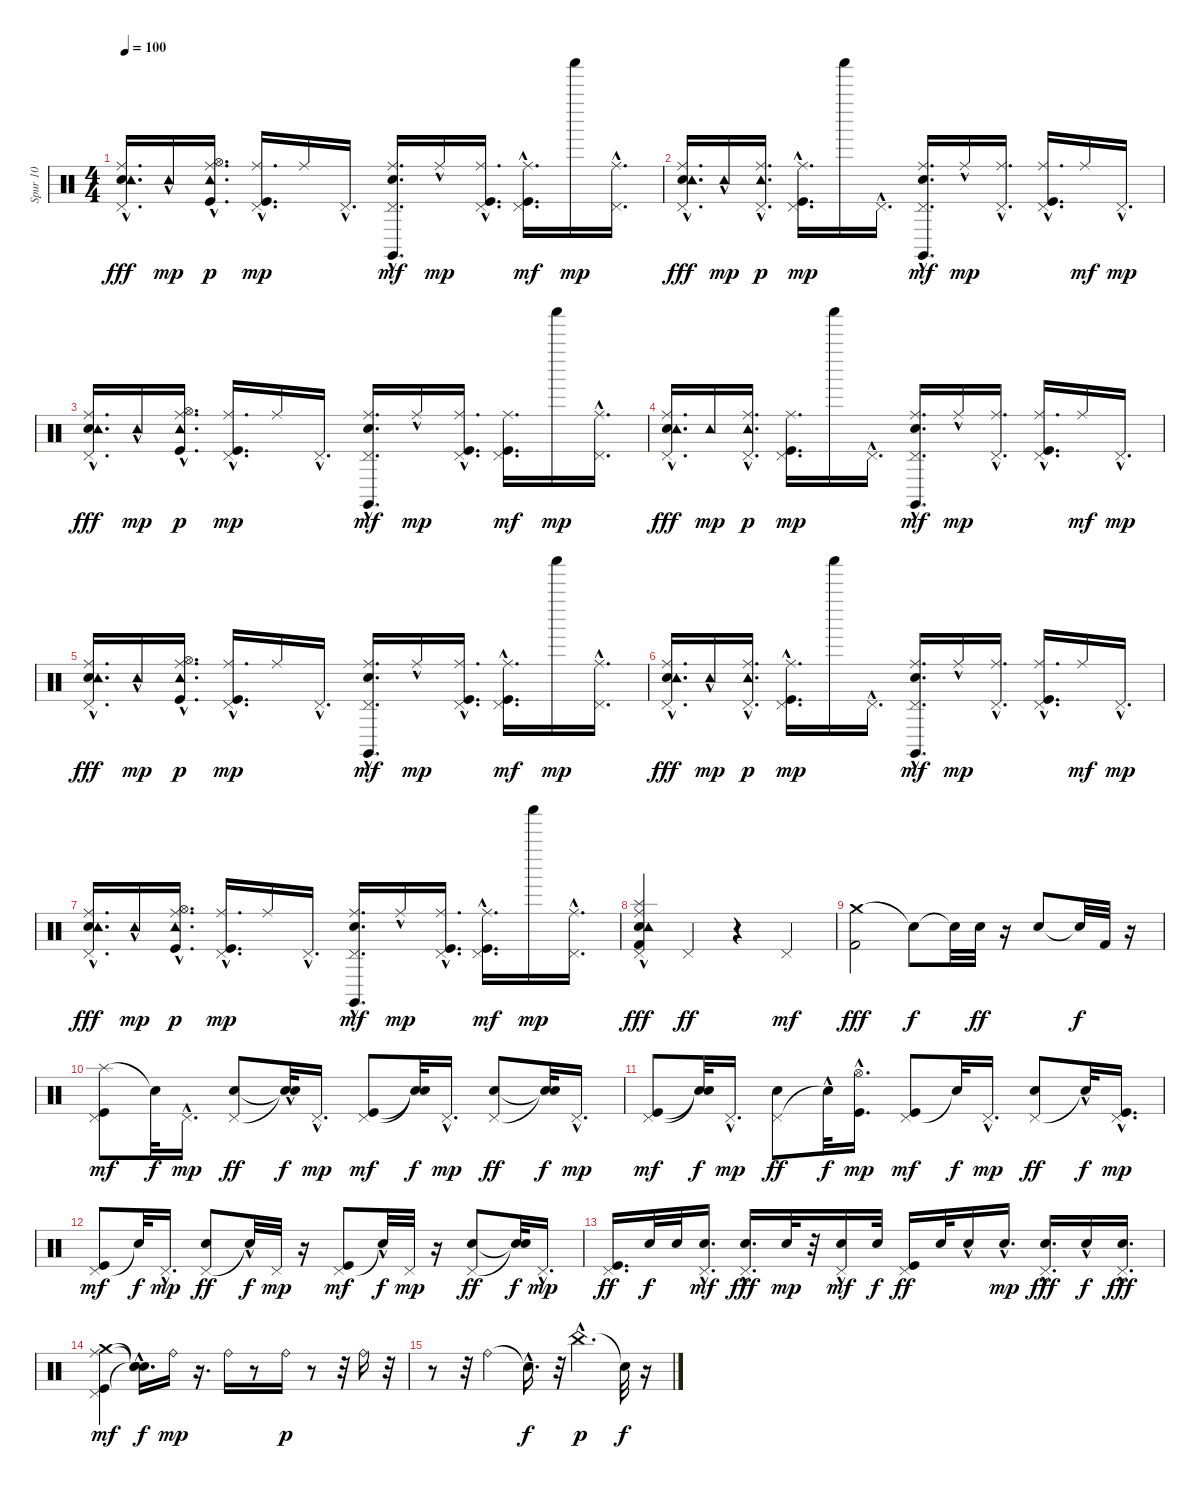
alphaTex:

\track ("Spur 10" "Spur 10") {instrument percussion}
\staff {score}
\articulation defaults
\ts (4 4)
\tempo 100
\clef neutral
\ks c
("Pedal Hi-Hat (hit)"{hac} "Hand Clap (hit)" "Ride (middle)" "Tambourine (hit)"{hac}).16{d dy fff} "Tambourine (hit)"{hac}.16{dy mp} ("Hi-Hat (open)" "Kick (hit)"{hac} "Ride (middle)"{hac} "Tambourine (hit)"{hac}).16{d dy p} ("Pedal Hi-Hat (hit)" "Kick (hit)"{hac} "Ride (middle)"{hac}).16{d dy mp} "Ride (middle)".16 "Pedal Hi-Hat (hit)"{hac}.16{d} ("Pedal Hi-Hat (hit)"{hac} "Hand Clap (hit)" "Ride (middle)"{hac} "Claves (hit)").16{d dy mf} "Ride (middle)"{hac}.16{dy mp} ("Pedal Hi-Hat (hit)"{hac} "Kick (hit)"{hac} "Ride (middle)"{hac}).16{d} ("Ride (middle)" "Pedal Hi-Hat (hit)"{hac} "Kick (hit)").16{d dy mf} "Shaker (hit)".16{dy mp} ("Pedal Hi-Hat (hit)"{hac} "Ride (middle)"{hac}).16{d} |
("Pedal Hi-Hat (hit)"{hac} "Hand Clap (hit)" "Ride (middle)" "Tambourine (hit)"{hac}).16{d dy fff} "Tambourine (hit)"{hac}.16{dy mp} ("Pedal Hi-Hat (hit)"{hac} "Ride (middle)"{hac} "Tambourine (hit)"{hac}).16{d dy p} ("Pedal Hi-Hat (hit)"{hac} "Kick (hit)" "Ride (middle)").16{d dy mp} "Shaker (hit)".16 "Pedal Hi-Hat (hit)"{hac}.16{d} ("Pedal Hi-Hat (hit)"{hac} "Hand Clap (hit)" "Ride (middle)"{hac} "Claves (hit)").16{d dy mf} "Ride (middle)"{hac}.16{dy mp} ("Pedal Hi-Hat (hit)"{hac} "Ride (middle)"{hac}).16{d} ("Pedal Hi-Hat (hit)"{hac} "Kick (hit)"{hac} "Ride (middle)"{hac}).16{d} "Ride (middle)".16{dy mf} "Pedal Hi-Hat (hit)"{hac}.16{d dy mp} |
("Pedal Hi-Hat (hit)" "Hand Clap (hit)" "Ride (middle)" "Tambourine (hit)"{hac}).16{d dy fff} "Tambourine (hit)"{hac}.16{dy mp} ("Hi-Hat (open)" "Kick (hit)"{hac} "Ride (middle)"{hac} "Tambourine (hit)"{hac}).16{d dy p} ("Pedal Hi-Hat (hit)" "Kick (hit)"{hac} "Ride (middle)"{hac}).16{d dy mp} "Ride (middle)".16 "Pedal Hi-Hat (hit)"{hac}.16{d} ("Pedal Hi-Hat (hit)" "Hand Clap (hit)" "Ride (middle)"{hac} "Claves (hit)").16{d dy mf} "Ride (middle)"{hac}.16{dy mp} ("Pedal Hi-Hat (hit)"{hac} "Kick (hit)"{hac} "Ride (middle)"{hac}).16{d} ("Ride (middle)" "Pedal Hi-Hat (hit)" "Kick (hit)").16{d dy mf} "Shaker (hit)".16{dy mp} ("Pedal Hi-Hat (hit)"{hac} "Ride (middle)"{hac}).16{d} |
("Pedal Hi-Hat (hit)"{hac} "Hand Clap (hit)" "Ride (middle)"{hac} "Tambourine (hit)"{hac}).16{d dy fff} "Tambourine (hit)".16{dy mp} ("Pedal Hi-Hat (hit)"{hac} "Ride (middle)"{hac} "Tambourine (hit)"{hac}).16{d dy p} ("Pedal Hi-Hat (hit)" "Kick (hit)" "Ride (middle)").16{d dy mp} "Shaker (hit)".16 "Pedal Hi-Hat (hit)"{hac}.16{d} ("Pedal Hi-Hat (hit)" "Hand Clap (hit)" "Ride (middle)"{hac} "Claves (hit)"{hac}).16{d dy mf} "Ride (middle)"{hac}.16{dy mp} ("Pedal Hi-Hat (hit)"{hac} "Ride (middle)"{hac}).16{d} ("Pedal Hi-Hat (hit)" "Kick (hit)"{hac} "Ride (middle)"{hac}).16{d} "Ride (middle)".16{dy mf} "Pedal Hi-Hat (hit)"{hac}.16{d dy mp} |
("Pedal Hi-Hat (hit)" "Hand Clap (hit)"{hac} "Ride (middle)" "Tambourine (hit)"{hac}).16{d dy fff} "Tambourine (hit)"{hac}.16{dy mp} ("Hi-Hat (open)"{hac} "Kick (hit)"{hac} "Ride (middle)"{hac} "Tambourine (hit)"{hac}).16{d dy p} ("Pedal Hi-Hat (hit)" "Kick (hit)"{hac} "Ride (middle)"{hac}).16{d dy mp} "Ride (middle)".16 "Pedal Hi-Hat (hit)"{hac}.16{d} ("Pedal Hi-Hat (hit)" "Hand Clap (hit)" "Ride (middle)"{hac} "Claves (hit)").16{d dy mf} "Ride (middle)"{hac}.16{dy mp} ("Pedal Hi-Hat (hit)"{hac} "Kick (hit)"{hac} "Ride (middle)"{hac}).16{d} ("Ride (middle)" "Pedal Hi-Hat (hit)"{hac} "Kick (hit)"{hac}).16{d dy mf} "Shaker (hit)".16{dy mp} ("Pedal Hi-Hat (hit)"{hac} "Ride (middle)"{hac}).16{d} |
("Pedal Hi-Hat (hit)" "Hand Clap (hit)" "Ride (middle)" "Tambourine (hit)"{hac}).16{d dy fff} "Tambourine (hit)"{hac}.16{dy mp} ("Pedal Hi-Hat (hit)"{hac} "Ride (middle)"{hac} "Tambourine (hit)"{hac}).16{d dy p} ("Pedal Hi-Hat (hit)" "Kick (hit)" "Ride (middle)"{hac}).16{d dy mp} "Shaker (hit)".16 "Pedal Hi-Hat (hit)"{hac}.16{d} ("Pedal Hi-Hat (hit)"{hac} "Hand Clap (hit)" "Ride (middle)"{hac} "Claves (hit)"{hac}).16{d dy mf} "Ride (middle)"{hac}.16{dy mp} ("Pedal Hi-Hat (hit)"{hac} "Ride (middle)"{hac}).16{d} ("Pedal Hi-Hat (hit)"{hac} "Kick (hit)"{hac} "Ride (middle)"{hac}).16{d} "Ride (middle)".16{dy mf} "Pedal Hi-Hat (hit)"{hac}.16{d dy mp} |
("Pedal Hi-Hat (hit)" "Hand Clap (hit)" "Ride (middle)"{hac} "Tambourine (hit)"{hac}).16{d dy fff} "Tambourine (hit)"{hac}.16{dy mp} ("Hi-Hat (open)"{hac} "Kick (hit)"{hac} "Ride (middle)"{hac} "Tambourine (hit)"{hac}).16{d dy p} ("Pedal Hi-Hat (hit)" "Kick (hit)"{hac} "Ride (middle)"{hac}).16{d dy mp} "Ride (middle)".16 "Pedal Hi-Hat (hit)"{hac}.16{d} ("Pedal Hi-Hat (hit)" "Hand Clap (hit)" "Ride (middle)"{hac} "Claves (hit)"{hac}).16{d dy mf} "Ride (middle)"{hac}.16{dy mp} ("Pedal Hi-Hat (hit)"{hac} "Kick (hit)"{hac} "Ride (middle)"{hac}).16{d} ("Ride (middle)" "Pedal Hi-Hat (hit)" "Kick (hit)"{hac}).16{d dy mf} "Shaker (hit)".16{dy mp} ("Pedal Hi-Hat (hit)"{hac} "Ride (middle)"{hac}).16{d} |
("Splash (hit)" "Kick (hit) 2" "Pedal Hi-Hat (hit)" "Hand Clap (hit)" "Ride (middle)" "Tambourine (hit)"{hac}).4{dy fff} "Pedal Hi-Hat (hit)".4{dy ff} r.4 "Pedal Hi-Hat (hit)".4{dy mf} |
("Crash medium (hit)" "Kick (hit) 2").2{dy fff} "Snare (hit)"{t}.8{dy f} "Snare (hit)"{t}.32 "Snare (hit) 2".32{dy ff} r.16 "Snare (hit) 2".8 "Snare (hit)"{t}.32{dy f} "Kick (hit) 2".32 r.16 |
("Splash (hit)" "Pedal Hi-Hat (hit)" "Kick (hit)").8{dy mf} "Snare (hit)"{t}.32{dy f} "Pedal Hi-Hat (hit)"{hac}.16{d dy mp} ("Pedal Hi-Hat (hit)" "Hand Clap (hit)").8{dy ff} ("Snare (hit)"{t} "Snare (hit)"{hac t}).32{dy f} "Pedal Hi-Hat (hit)"{hac}.16{d dy mp} ("Pedal Hi-Hat (hit)" "Kick (hit)").8{dy mf} ("Snare (hit)"{t} "Snare (hit)"{t}).32{dy f} "Pedal Hi-Hat (hit)"{hac}.16{d dy mp} ("Pedal Hi-Hat (hit)" "Hand Clap (hit)").8{dy ff} ("Snare (hit)"{t} "Snare (hit)"{t}).32{dy f} "Pedal Hi-Hat (hit)"{hac}.16{d dy mp} |
("Pedal Hi-Hat (hit)" "Kick (hit)").8{dy mf} ("Snare (hit)"{t} "Snare (hit)"{t}).32{dy f} "Pedal Hi-Hat (hit)"{hac}.16{d dy mp} ("Pedal Hi-Hat (hit)" "Hand Clap (hit)").8{dy ff} "Snare (hit)"{hac t}.32{dy f} ("Hi-Hat (open)" "Kick (hit)"{hac}).16{d dy mp} ("Pedal Hi-Hat (hit)" "Kick (hit)").8{dy mf} "Snare (hit)"{t}.32{dy f} "Pedal Hi-Hat (hit)"{hac}.16{d dy mp} ("Pedal Hi-Hat (hit)" "Hand Clap (hit)").8{dy ff} "Snare (hit)"{hac t}.32{dy f} ("Pedal Hi-Hat (hit)"{hac} "Kick (hit)").16{d dy mp} |
("Pedal Hi-Hat (hit)" "Kick (hit)").8{dy mf} "Snare (hit)"{t}.32{dy f} "Pedal Hi-Hat (hit)"{hac}.16{d dy mp} ("Pedal Hi-Hat (hit)" "Hand Clap (hit)").8{dy ff} "Snare (hit)"{hac t}.32{dy f} "Pedal Hi-Hat (hit)".32{dy mp} r.16 ("Pedal Hi-Hat (hit)" "Kick (hit)").8{dy mf} "Snare (hit)"{hac t}.32{dy f} "Pedal Hi-Hat (hit)".32{dy mp} r.16 ("Pedal Hi-Hat (hit)" "Hand Clap (hit)").8{dy ff} ("Snare (hit)"{t} "Snare (hit)"{t}).32{dy f} "Pedal Hi-Hat (hit)"{hac}.16{d dy mp} |
("Pedal Hi-Hat (hit)" "Kick (hit)").16{d dy ff} "Hand Clap (hit)".32{dy f} "Snare (hit) 2".32 ("Hand Clap (hit)"{hac} "Pedal Hi-Hat (hit)"{hac}).16{d dy mf} ("Pedal Hi-Hat (hit)" "Hand Clap (hit)"{hac}).16{d dy fff} "Hand Clap (hit)".32{dy mp} r.32 ("Hand Clap (hit)" "Pedal Hi-Hat (hit)"{hac}).16{dy mf} "Snare (hit) 2".32{dy f} ("Pedal Hi-Hat (hit)" "Kick (hit)").16{dy ff} "Snare (hit) 2".32 "Hand Clap (hit)"{hac}.16 "Hand Clap (hit)"{hac}.16{d dy mp} ("Pedal Hi-Hat (hit)" "Hand Clap (hit)"{hac}).16{d dy fff} "Hand Clap (hit)"{hac}.16{dy f} ("Pedal Hi-Hat (hit)"{hac} "Hand Clap (hit)"{hac}).16{d dy fff} |
("Crash medium (hit)" "Ride (middle)" "Pedal Hi-Hat (hit)" "Kick (hit)").4{dy mf} ("Snare (hit)"{hac t} "Snare (hit)"{hac t} "Snare (hit)"{hac t}).16{d dy f} "Ride (bell)".16{dy mp} r.16{d} "Ride (bell)".16 r.8 "Ride (bell)".16{dy p} r.8 r.32 "Ride (bell)".16 r.32 |
r.8 r.32 "Ride (bell)".4 "Snare (hit)"{hac t}.16{d dy f} r.32 "China (hit)"{hac}.4{d dy p} "Snare (hit)"{t}.32{dy f} r.16
